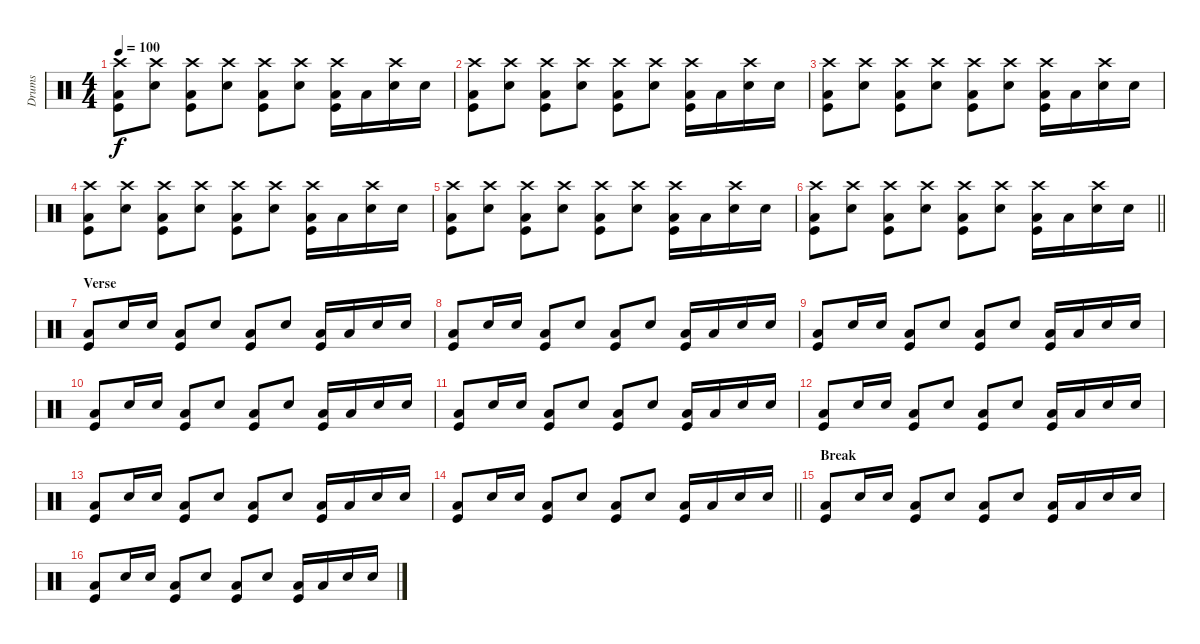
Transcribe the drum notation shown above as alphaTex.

\track ("Drums" "Drums") {instrument percussion}
\staff {score}
\articulation defaults
\ts (4 4)
\tempo 100
\clef neutral
\ks c
("Crash high (hit)" "Low Floor Tom (hit)" "Kick (hit)").8{dy f} ("Crash high (hit)" "Snare (hit) 2").8 ("Crash high (hit)" "Low Floor Tom (hit)" "Kick (hit)").8 ("Crash high (hit)" "Snare (hit) 2").8 ("Crash high (hit)" "Low Floor Tom (hit)" "Kick (hit)").8 ("Crash high (hit)" "Snare (hit) 2").8 ("Crash high (hit)" "Low Floor Tom (hit)" "Kick (hit)").16 "Low Floor Tom (hit)".16 ("Crash high (hit)" "Snare (hit) 2").16 "Snare (hit) 2".16 |
("Crash high (hit)" "Low Floor Tom (hit)" "Kick (hit)").8 ("Crash high (hit)" "Snare (hit) 2").8 ("Crash high (hit)" "Low Floor Tom (hit)" "Kick (hit)").8 ("Crash high (hit)" "Snare (hit) 2").8 ("Crash high (hit)" "Low Floor Tom (hit)" "Kick (hit)").8 ("Crash high (hit)" "Snare (hit) 2").8 ("Crash high (hit)" "Low Floor Tom (hit)" "Kick (hit)").16 "Low Floor Tom (hit)".16 ("Crash high (hit)" "Snare (hit) 2").16 "Snare (hit) 2".16 |
("Crash high (hit)" "Low Floor Tom (hit)" "Kick (hit)").8 ("Crash high (hit)" "Snare (hit) 2").8 ("Crash high (hit)" "Low Floor Tom (hit)" "Kick (hit)").8 ("Crash high (hit)" "Snare (hit) 2").8 ("Crash high (hit)" "Low Floor Tom (hit)" "Kick (hit)").8 ("Crash high (hit)" "Snare (hit) 2").8 ("Crash high (hit)" "Low Floor Tom (hit)" "Kick (hit)").16 "Low Floor Tom (hit)".16 ("Crash high (hit)" "Snare (hit) 2").16 "Snare (hit) 2".16 |
("Crash high (hit)" "Low Floor Tom (hit)" "Kick (hit)").8 ("Crash high (hit)" "Snare (hit) 2").8 ("Crash high (hit)" "Low Floor Tom (hit)" "Kick (hit)").8 ("Crash high (hit)" "Snare (hit) 2").8 ("Crash high (hit)" "Low Floor Tom (hit)" "Kick (hit)").8 ("Crash high (hit)" "Snare (hit) 2").8 ("Crash high (hit)" "Low Floor Tom (hit)" "Kick (hit)").16 "Low Floor Tom (hit)".16 ("Crash high (hit)" "Snare (hit) 2").16 "Snare (hit) 2".16 |
("Crash high (hit)" "Low Floor Tom (hit)" "Kick (hit)").8 ("Crash high (hit)" "Snare (hit) 2").8 ("Crash high (hit)" "Low Floor Tom (hit)" "Kick (hit)").8 ("Crash high (hit)" "Snare (hit) 2").8 ("Crash high (hit)" "Low Floor Tom (hit)" "Kick (hit)").8 ("Crash high (hit)" "Snare (hit) 2").8 ("Crash high (hit)" "Low Floor Tom (hit)" "Kick (hit)").16 "Low Floor Tom (hit)".16 ("Crash high (hit)" "Snare (hit) 2").16 "Snare (hit) 2".16 |
\barLineRight lightlight
("Crash high (hit)" "Low Floor Tom (hit)" "Kick (hit)").8 ("Crash high (hit)" "Snare (hit) 2").8 ("Crash high (hit)" "Low Floor Tom (hit)" "Kick (hit)").8 ("Crash high (hit)" "Snare (hit) 2").8 ("Crash high (hit)" "Low Floor Tom (hit)" "Kick (hit)").8 ("Crash high (hit)" "Snare (hit) 2").8 ("Crash high (hit)" "Low Floor Tom (hit)" "Kick (hit)").16 "Low Floor Tom (hit)".16 ("Crash high (hit)" "Snare (hit) 2").16 "Snare (hit) 2".16 |
\section ("" "Verse")
("Low Floor Tom (hit)" "Kick (hit)").8 "Snare (hit) 2".16 "Snare (hit) 2".16 ("Low Floor Tom (hit)" "Kick (hit)").8 "Snare (hit) 2".8 ("Low Floor Tom (hit)" "Kick (hit)").8 "Snare (hit) 2".8 ("Low Floor Tom (hit)" "Kick (hit)").16 "Low Floor Tom (hit)".16 "Snare (hit) 2".16 "Snare (hit) 2".16 |
("Low Floor Tom (hit)" "Kick (hit)").8 "Snare (hit) 2".16 "Snare (hit) 2".16 ("Low Floor Tom (hit)" "Kick (hit)").8 "Snare (hit) 2".8 ("Low Floor Tom (hit)" "Kick (hit)").8 "Snare (hit) 2".8 ("Low Floor Tom (hit)" "Kick (hit)").16 "Low Floor Tom (hit)".16 "Snare (hit) 2".16 "Snare (hit) 2".16 |
("Low Floor Tom (hit)" "Kick (hit)").8 "Snare (hit) 2".16 "Snare (hit) 2".16 ("Low Floor Tom (hit)" "Kick (hit)").8 "Snare (hit) 2".8 ("Low Floor Tom (hit)" "Kick (hit)").8 "Snare (hit) 2".8 ("Low Floor Tom (hit)" "Kick (hit)").16 "Low Floor Tom (hit)".16 "Snare (hit) 2".16 "Snare (hit) 2".16 |
("Low Floor Tom (hit)" "Kick (hit)").8 "Snare (hit) 2".16 "Snare (hit) 2".16 ("Low Floor Tom (hit)" "Kick (hit)").8 "Snare (hit) 2".8 ("Low Floor Tom (hit)" "Kick (hit)").8 "Snare (hit) 2".8 ("Low Floor Tom (hit)" "Kick (hit)").16 "Low Floor Tom (hit)".16 "Snare (hit) 2".16 "Snare (hit) 2".16 |
("Low Floor Tom (hit)" "Kick (hit)").8 "Snare (hit) 2".16 "Snare (hit) 2".16 ("Low Floor Tom (hit)" "Kick (hit)").8 "Snare (hit) 2".8 ("Low Floor Tom (hit)" "Kick (hit)").8 "Snare (hit) 2".8 ("Low Floor Tom (hit)" "Kick (hit)").16 "Low Floor Tom (hit)".16 "Snare (hit) 2".16 "Snare (hit) 2".16 |
("Low Floor Tom (hit)" "Kick (hit)").8 "Snare (hit) 2".16 "Snare (hit) 2".16 ("Low Floor Tom (hit)" "Kick (hit)").8 "Snare (hit) 2".8 ("Low Floor Tom (hit)" "Kick (hit)").8 "Snare (hit) 2".8 ("Low Floor Tom (hit)" "Kick (hit)").16 "Low Floor Tom (hit)".16 "Snare (hit) 2".16 "Snare (hit) 2".16 |
("Low Floor Tom (hit)" "Kick (hit)").8 "Snare (hit) 2".16 "Snare (hit) 2".16 ("Low Floor Tom (hit)" "Kick (hit)").8 "Snare (hit) 2".8 ("Low Floor Tom (hit)" "Kick (hit)").8 "Snare (hit) 2".8 ("Low Floor Tom (hit)" "Kick (hit)").16 "Low Floor Tom (hit)".16 "Snare (hit) 2".16 "Snare (hit) 2".16 |
\barLineRight lightlight
("Low Floor Tom (hit)" "Kick (hit)").8 "Snare (hit) 2".16 "Snare (hit) 2".16 ("Low Floor Tom (hit)" "Kick (hit)").8 "Snare (hit) 2".8 ("Low Floor Tom (hit)" "Kick (hit)").8 "Snare (hit) 2".8 ("Low Floor Tom (hit)" "Kick (hit)").16 "Low Floor Tom (hit)".16 "Snare (hit) 2".16 "Snare (hit) 2".16 |
\section ("" "Break")
("Low Floor Tom (hit)" "Kick (hit)").8 "Snare (hit) 2".16 "Snare (hit) 2".16 ("Low Floor Tom (hit)" "Kick (hit)").8 "Snare (hit) 2".8 ("Low Floor Tom (hit)" "Kick (hit)").8 "Snare (hit) 2".8 ("Low Floor Tom (hit)" "Kick (hit)").16 "Low Floor Tom (hit)".16 "Snare (hit) 2".16 "Snare (hit) 2".16 |
("Low Floor Tom (hit)" "Kick (hit)").8 "Snare (hit) 2".16 "Snare (hit) 2".16 ("Low Floor Tom (hit)" "Kick (hit)").8 "Snare (hit) 2".8 ("Low Floor Tom (hit)" "Kick (hit)").8 "Snare (hit) 2".8 ("Low Floor Tom (hit)" "Kick (hit)").16 "Low Floor Tom (hit)".16 "Snare (hit) 2".16 "Snare (hit) 2".16
